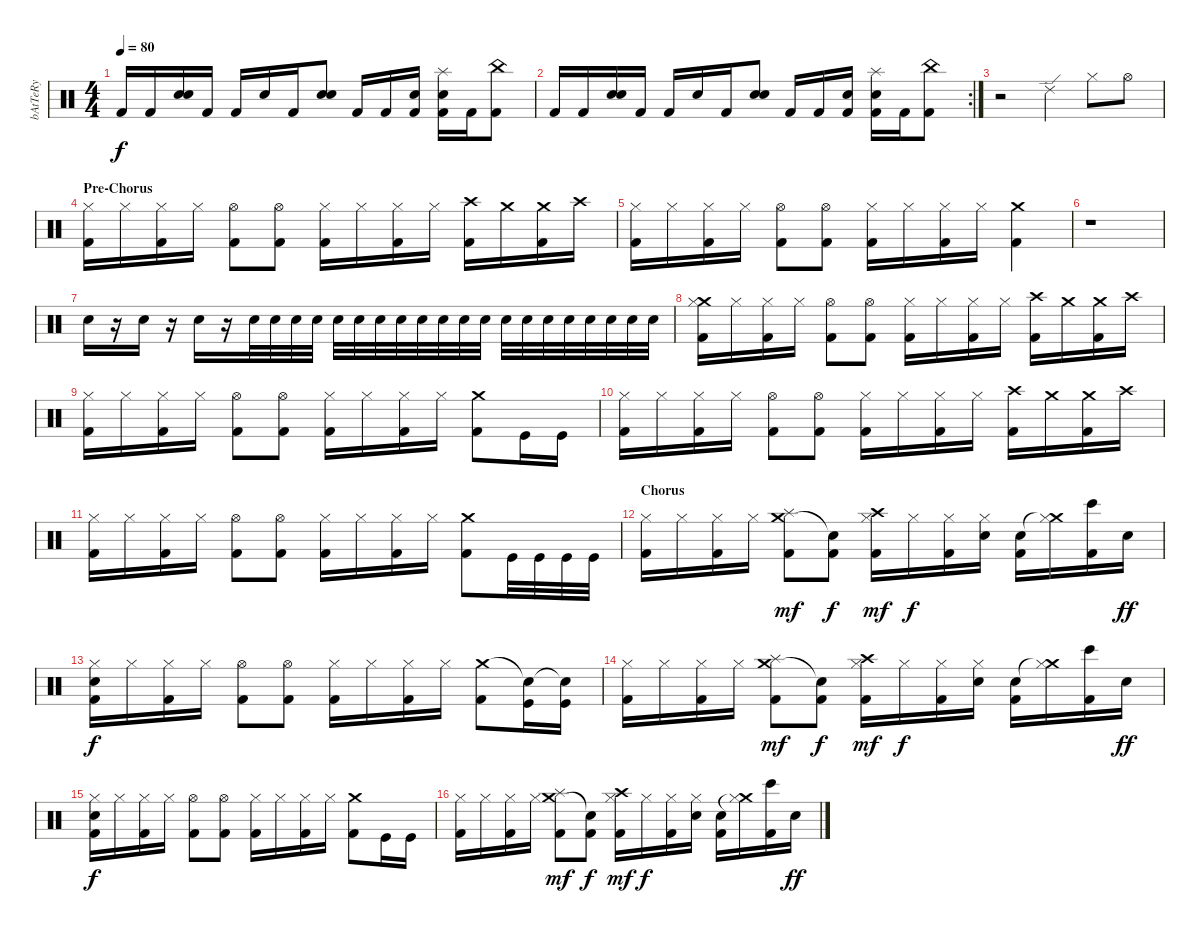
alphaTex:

\track ("bAtTeRy" "bAtTeRy") {instrument percussion}
\staff {score}
\articulation defaults
\ts (4 4)
\tempo 80
\clef neutral
\ks c "Kick (hit) 2".16{dy f} "Kick (hit) 2".16
("Snare (hit) 2" "Electric Snare (hit)").16 "Kick (hit) 2".16 "Kick (hit) 2".16 "Electric Snare (hit)".16 "Kick (hit) 2".16 ("Snare (hit) 2" "Electric Snare (hit)").8 "Kick (hit) 2".16 "Kick (hit) 2".16 ("Snare (hit) 2" "Kick (hit) 2").16 ("Splash (hit)" "Snare (hit) 2" "Kick (hit) 2").16 "Kick (hit) 2".16 ("China (hit)" "Kick (hit) 2").8 |
\rc 2 "Kick (hit) 2".16 "Kick (hit) 2".16
("Snare (hit) 2" "Electric Snare (hit)").16 "Kick (hit) 2".16 "Kick (hit) 2".16 "Electric Snare (hit)".16 "Kick (hit) 2".16 ("Snare (hit) 2" "Electric Snare (hit)").8 "Kick (hit) 2".16 "Kick (hit) 2".16 ("Snare (hit) 2" "Kick (hit) 2").16 ("Splash (hit)" "Snare (hit) 2" "Kick (hit) 2").16 "Kick (hit) 2".16 ("China (hit)" "Kick (hit) 2").8 |
r.2 "Ride (edge) 2".4 "Hi-Hat (closed)".8 "Hi-Hat (open)".8 |
\section ("" "Pre-Chorus")
("Hi-Hat (closed)" "Kick (hit) 2").16 "Hi-Hat (closed)".16 ("Hi-Hat (closed)" "Kick (hit) 2").16 "Hi-Hat (closed)".16 ("Hi-Hat (open)" "Kick (hit) 2").8 ("Hi-Hat (open)" "Kick (hit) 2").8 ("Hi-Hat (closed)" "Kick (hit) 2").16 "Hi-Hat (closed)".16 ("Hi-Hat (closed)" "Kick (hit) 2").16 "Hi-Hat (closed)".16 ("Crash high (hit)" "Kick (hit) 2").16 "Crash medium (hit)".16 ("Crash medium (hit)" "Kick (hit) 2").16 "Crash high (hit)".16 |
("Hi-Hat (closed)" "Kick (hit) 2").16 "Hi-Hat (closed)".16 ("Hi-Hat (closed)" "Kick (hit) 2").16 "Hi-Hat (closed)".16 ("Hi-Hat (open)" "Kick (hit) 2").8 ("Hi-Hat (open)" "Kick (hit) 2").8 ("Hi-Hat (closed)" "Kick (hit) 2").16 "Hi-Hat (closed)".16 ("Hi-Hat (closed)" "Kick (hit) 2").16 "Hi-Hat (closed)".16 ("Crash medium (hit)" "Kick (hit) 2").4 |
r.1 |
"Electric Snare (hit)".16 r.16 "Electric Snare (hit)".16 r.16 "Electric Snare (hit)".16 r.16 "Electric Snare (hit)".32 "Electric Snare (hit)".32 "Electric Snare (hit)".32 "Electric Snare (hit)".32 "Electric Snare (hit)".32 "Electric Snare (hit)".32 "Electric Snare (hit)".32 "Electric Snare (hit)".32 "Electric Snare (hit)".32 "Electric Snare (hit)".32 "Electric Snare (hit)".32 "Snare (hit) 2".32 "Snare (hit) 2".32 "Snare (hit) 2".32 "Snare (hit) 2".32 "Snare (hit) 2".32 "Snare (hit) 2".32 "Snare (hit) 2".32 "Snare (hit) 2".32 "Snare (hit) 2".32 |
("Crash medium (hit)" "Hi-Hat (closed)" "Kick (hit) 2").16 "Hi-Hat (closed)".16 ("Hi-Hat (closed)" "Kick (hit) 2").16 "Hi-Hat (closed)".16 ("Hi-Hat (open)" "Kick (hit) 2").8 ("Hi-Hat (open)" "Kick (hit) 2").8 ("Hi-Hat (closed)" "Kick (hit) 2").16 "Hi-Hat (closed)".16 ("Hi-Hat (closed)" "Kick (hit) 2").16 "Hi-Hat (closed)".16 ("Crash high (hit)" "Kick (hit) 2").16 "Crash medium (hit)".16 ("Crash medium (hit)" "Kick (hit) 2").16 "Crash high (hit)".16 |
("Hi-Hat (closed)" "Kick (hit) 2").16 "Hi-Hat (closed)".16 ("Hi-Hat (closed)" "Kick (hit) 2").16 "Hi-Hat (closed)".16 ("Hi-Hat (open)" "Kick (hit) 2").8 ("Hi-Hat (open)" "Kick (hit) 2").8 ("Hi-Hat (closed)" "Kick (hit) 2").16 "Hi-Hat (closed)".16 ("Hi-Hat (closed)" "Kick (hit) 2").16 "Hi-Hat (closed)".16 ("Crash medium (hit)" "Kick (hit) 2").8 "Kick (hit)".16 "Kick (hit)".16 |
("Hi-Hat (closed)" "Kick (hit) 2").16 "Hi-Hat (closed)".16 ("Hi-Hat (closed)" "Kick (hit) 2").16 "Hi-Hat (closed)".16 ("Hi-Hat (open)" "Kick (hit) 2").8 ("Hi-Hat (open)" "Kick (hit) 2").8 ("Hi-Hat (closed)" "Kick (hit) 2").16 "Hi-Hat (closed)".16 ("Hi-Hat (closed)" "Kick (hit) 2").16 "Hi-Hat (closed)".16 ("Crash high (hit)" "Kick (hit) 2").16 "Crash medium (hit)".16 ("Crash medium (hit)" "Kick (hit) 2").16 "Crash high (hit)".16 |
("Hi-Hat (closed)" "Kick (hit) 2").16 "Hi-Hat (closed)".16 ("Hi-Hat (closed)" "Kick (hit) 2").16 "Hi-Hat (closed)".16 ("Hi-Hat (open)" "Kick (hit) 2").8 ("Hi-Hat (open)" "Kick (hit) 2").8 ("Hi-Hat (closed)" "Kick (hit) 2").16 "Hi-Hat (closed)".16 ("Hi-Hat (closed)" "Kick (hit) 2").16 "Hi-Hat (closed)".16 ("Crash medium (hit)" "Kick (hit) 2").8 "Kick (hit)".32 "Kick (hit)".32 "Kick (hit)".32 "Kick (hit)".32 |
\section ("" "Chorus")
("Hi-Hat (closed)" "Kick (hit) 2").16 "Hi-Hat (closed)".16 ("Hi-Hat (closed)" "Kick (hit) 2").16 "Hi-Hat (closed)".16 ("Crash medium (hit)" "Splash (hit)" "Kick (hit) 2").8{dy mf} ("Snare (hit)"{t} "Kick (hit) 2").8{dy f} ("Crash high (hit)" "Hi-Hat (closed)" "Kick (hit) 2").16{dy mf} "Hi-Hat (closed)".16{dy f} ("Hi-Hat (closed)" "Kick (hit) 2").16 ("Snare (hit) 2" "Hi-Hat (closed)").16 ("Snare (hit) 2" "Kick (hit) 2").16 ("Crash medium (hit)"{t} "Hi-Hat (closed)").16 ("Bongo High (hit)" "Kick (hit) 2").16 "Electric Snare (hit)".16{dy ff} |
("Snare (hit) 2" "Hi-Hat (closed)" "Kick (hit) 2").16{dy f} "Hi-Hat (closed)".16 ("Hi-Hat (closed)" "Kick (hit) 2").16 "Hi-Hat (closed)".16 ("Hi-Hat (open)" "Kick (hit) 2").8 ("Hi-Hat (open)" "Kick (hit) 2").8 ("Hi-Hat (closed)" "Kick (hit) 2").16 "Hi-Hat (closed)".16 ("Hi-Hat (closed)" "Kick (hit) 2").16 "Hi-Hat (closed)".16 ("Crash medium (hit)" "Kick (hit) 2").8 ("Snare (hit)"{t} "Kick (hit)").16 ("Snare (hit)"{t} "Kick (hit)").16 |
("Hi-Hat (closed)" "Kick (hit) 2").16 "Hi-Hat (closed)".16 ("Hi-Hat (closed)" "Kick (hit) 2").16 "Hi-Hat (closed)".16 ("Crash medium (hit)" "Splash (hit)" "Kick (hit) 2").8{dy mf} ("Snare (hit)"{t} "Kick (hit) 2").8{dy f} ("Crash high (hit)" "Hi-Hat (closed)" "Kick (hit) 2").16{dy mf} "Hi-Hat (closed)".16{dy f} ("Hi-Hat (closed)" "Kick (hit) 2").16 ("Snare (hit) 2" "Hi-Hat (closed)").16 ("Snare (hit) 2" "Kick (hit) 2").16 ("Crash medium (hit)"{t} "Hi-Hat (closed)").16 ("Bongo High (hit)" "Kick (hit) 2").16 "Electric Snare (hit)".16{dy ff} |
("Snare (hit) 2" "Hi-Hat (closed)" "Kick (hit) 2").16{dy f} "Hi-Hat (closed)".16 ("Hi-Hat (closed)" "Kick (hit) 2").16 "Hi-Hat (closed)".16 ("Hi-Hat (open)" "Kick (hit) 2").8 ("Hi-Hat (open)" "Kick (hit) 2").8 ("Hi-Hat (closed)" "Kick (hit) 2").16 "Hi-Hat (closed)".16 ("Hi-Hat (closed)" "Kick (hit) 2").16 "Hi-Hat (closed)".16 ("Crash medium (hit)" "Kick (hit) 2").8 "Kick (hit)".16 "Kick (hit)".16 |
("Hi-Hat (closed)" "Kick (hit) 2").16 "Hi-Hat (closed)".16 ("Hi-Hat (closed)" "Kick (hit) 2").16 "Hi-Hat (closed)".16 ("Crash medium (hit)" "Splash (hit)" "Kick (hit) 2").8{dy mf} ("Snare (hit)"{t} "Kick (hit) 2").8{dy f} ("Crash high (hit)" "Hi-Hat (closed)" "Kick (hit) 2").16{dy mf} "Hi-Hat (closed)".16{dy f} ("Hi-Hat (closed)" "Kick (hit) 2").16 ("Snare (hit) 2" "Hi-Hat (closed)").16 ("Snare (hit) 2" "Kick (hit) 2").16 ("Crash medium (hit)"{t} "Hi-Hat (closed)").16 ("Bongo High (hit)" "Kick (hit) 2").16 "Electric Snare (hit)".16{dy ff}
